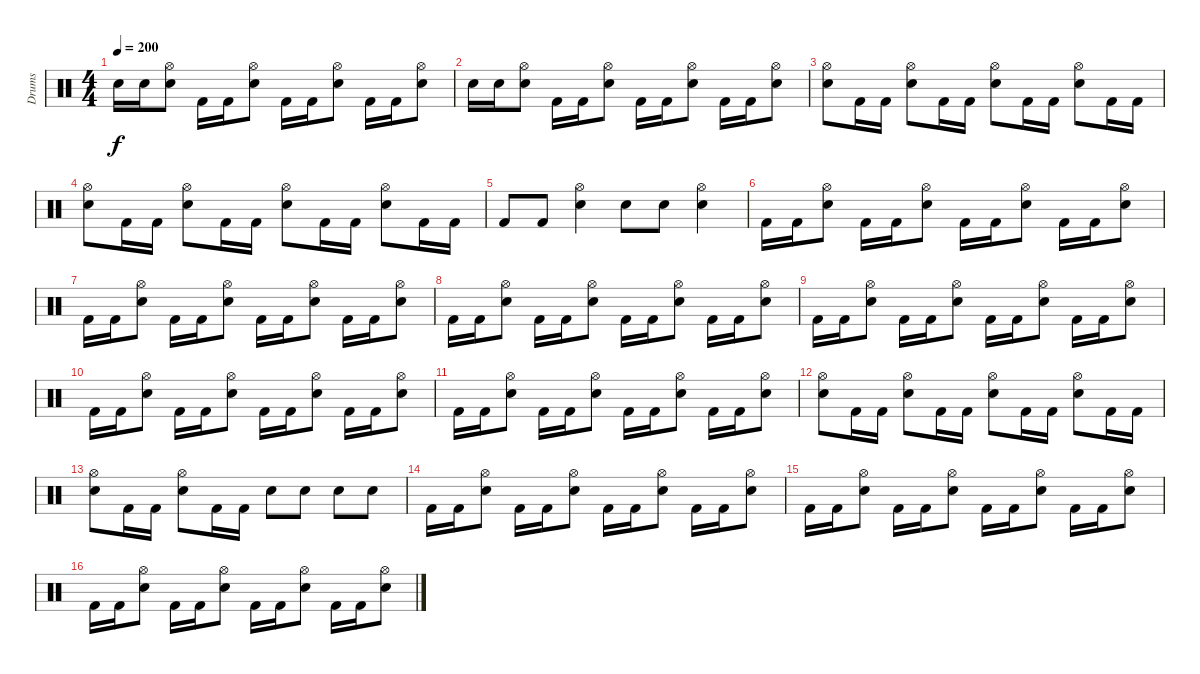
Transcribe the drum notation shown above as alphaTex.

\track ("Drums" "Drums") {instrument percussion}
\staff {score}
\articulation defaults
\ts (4 4)
\tempo 200
\clef neutral
\ks c "Snare (hit) 2".16{dy f} "Snare (hit) 2".16
("Hi-Hat (open)" "Snare (hit) 2").8 "Kick (hit) 2".16 "Kick (hit) 2".16 ("Hi-Hat (open)" "Snare (hit) 2").8 "Kick (hit) 2".16 "Kick (hit) 2".16 ("Hi-Hat (open)" "Snare (hit) 2").8 "Kick (hit) 2".16 "Kick (hit) 2".16 ("Hi-Hat (open)" "Snare (hit) 2").8 |
"Snare (hit) 2".16 "Snare (hit) 2".16 ("Hi-Hat (open)" "Snare (hit) 2").8 "Kick (hit) 2".16 "Kick (hit) 2".16 ("Hi-Hat (open)" "Snare (hit) 2").8 "Kick (hit) 2".16 "Kick (hit) 2".16 ("Hi-Hat (open)" "Snare (hit) 2").8 "Kick (hit) 2".16 "Kick (hit) 2".16 ("Hi-Hat (open)" "Snare (hit) 2").8 |
("Hi-Hat (open)" "Snare (hit) 2").8 "Kick (hit) 2".16 "Kick (hit) 2".16 ("Hi-Hat (open)" "Snare (hit) 2").8 "Kick (hit) 2".16 "Kick (hit) 2".16 ("Hi-Hat (open)" "Snare (hit) 2").8 "Kick (hit) 2".16 "Kick (hit) 2".16 ("Hi-Hat (open)" "Snare (hit) 2").8 "Kick (hit) 2".16 "Kick (hit) 2".16 |
("Hi-Hat (open)" "Snare (hit) 2").8 "Kick (hit) 2".16 "Kick (hit) 2".16 ("Hi-Hat (open)" "Snare (hit) 2").8 "Kick (hit) 2".16 "Kick (hit) 2".16 ("Hi-Hat (open)" "Snare (hit) 2").8 "Kick (hit) 2".16 "Kick (hit) 2".16 ("Hi-Hat (open)" "Snare (hit) 2").8 "Kick (hit) 2".16 "Kick (hit) 2".16 |
"Kick (hit) 2".8 "Kick (hit) 2".8 ("Hi-Hat (open)" "Snare (hit) 2").4 "Snare (hit) 2".8 "Snare (hit) 2".8 ("Hi-Hat (open)" "Snare (hit) 2").4 |
"Kick (hit) 2".16 "Kick (hit) 2".16 ("Hi-Hat (open)" "Snare (hit) 2").8 "Kick (hit) 2".16 "Kick (hit) 2".16 ("Hi-Hat (open)" "Snare (hit) 2").8 "Kick (hit) 2".16 "Kick (hit) 2".16 ("Hi-Hat (open)" "Snare (hit) 2").8 "Kick (hit) 2".16 "Kick (hit) 2".16 ("Hi-Hat (open)" "Snare (hit) 2").8 |
"Kick (hit) 2".16 "Kick (hit) 2".16 ("Hi-Hat (open)" "Snare (hit) 2").8 "Kick (hit) 2".16 "Kick (hit) 2".16 ("Hi-Hat (open)" "Snare (hit) 2").8 "Kick (hit) 2".16 "Kick (hit) 2".16 ("Hi-Hat (open)" "Snare (hit) 2").8 "Kick (hit) 2".16 "Kick (hit) 2".16 ("Hi-Hat (open)" "Snare (hit) 2").8 |
"Kick (hit) 2".16 "Kick (hit) 2".16 ("Hi-Hat (open)" "Snare (hit) 2").8 "Kick (hit) 2".16 "Kick (hit) 2".16 ("Hi-Hat (open)" "Snare (hit) 2").8 "Kick (hit) 2".16 "Kick (hit) 2".16 ("Hi-Hat (open)" "Snare (hit) 2").8 "Kick (hit) 2".16 "Kick (hit) 2".16 ("Hi-Hat (open)" "Snare (hit) 2").8 |
"Kick (hit) 2".16 "Kick (hit) 2".16 ("Hi-Hat (open)" "Snare (hit) 2").8 "Kick (hit) 2".16 "Kick (hit) 2".16 ("Hi-Hat (open)" "Snare (hit) 2").8 "Kick (hit) 2".16 "Kick (hit) 2".16 ("Hi-Hat (open)" "Snare (hit) 2").8 "Kick (hit) 2".16 "Kick (hit) 2".16 ("Hi-Hat (open)" "Snare (hit) 2").8 |
"Kick (hit) 2".16 "Kick (hit) 2".16 ("Hi-Hat (open)" "Snare (hit) 2").8 "Kick (hit) 2".16 "Kick (hit) 2".16 ("Hi-Hat (open)" "Snare (hit) 2").8 "Kick (hit) 2".16 "Kick (hit) 2".16 ("Hi-Hat (open)" "Snare (hit) 2").8 "Kick (hit) 2".16 "Kick (hit) 2".16 ("Hi-Hat (open)" "Snare (hit) 2").8 |
"Kick (hit) 2".16 "Kick (hit) 2".16 ("Hi-Hat (open)" "Snare (hit) 2").8 "Kick (hit) 2".16 "Kick (hit) 2".16 ("Hi-Hat (open)" "Snare (hit) 2").8 "Kick (hit) 2".16 "Kick (hit) 2".16 ("Hi-Hat (open)" "Snare (hit) 2").8 "Kick (hit) 2".16 "Kick (hit) 2".16 ("Hi-Hat (open)" "Snare (hit) 2").8 |
("Hi-Hat (open)" "Snare (hit) 2").8 "Kick (hit) 2".16 "Kick (hit) 2".16 ("Hi-Hat (open)" "Snare (hit) 2").8 "Kick (hit) 2".16 "Kick (hit) 2".16 ("Hi-Hat (open)" "Snare (hit) 2").8 "Kick (hit) 2".16 "Kick (hit) 2".16 ("Hi-Hat (open)" "Snare (hit) 2").8 "Kick (hit) 2".16 "Kick (hit) 2".16 |
("Hi-Hat (open)" "Snare (hit) 2").8 "Kick (hit) 2".16 "Kick (hit) 2".16 ("Hi-Hat (open)" "Snare (hit) 2").8 "Kick (hit) 2".16 "Kick (hit) 2".16 "Snare (hit) 2".8 "Snare (hit) 2".8 "Snare (hit) 2".8 "Snare (hit) 2".8 |
"Kick (hit) 2".16 "Kick (hit) 2".16 ("Hi-Hat (open)" "Snare (hit) 2").8 "Kick (hit) 2".16 "Kick (hit) 2".16 ("Hi-Hat (open)" "Snare (hit) 2").8 "Kick (hit) 2".16 "Kick (hit) 2".16 ("Hi-Hat (open)" "Snare (hit) 2").8 "Kick (hit) 2".16 "Kick (hit) 2".16 ("Hi-Hat (open)" "Snare (hit) 2").8 |
"Kick (hit) 2".16 "Kick (hit) 2".16 ("Hi-Hat (open)" "Snare (hit) 2").8 "Kick (hit) 2".16 "Kick (hit) 2".16 ("Hi-Hat (open)" "Snare (hit) 2").8 "Kick (hit) 2".16 "Kick (hit) 2".16 ("Hi-Hat (open)" "Snare (hit) 2").8 "Kick (hit) 2".16 "Kick (hit) 2".16 ("Hi-Hat (open)" "Snare (hit) 2").8 |
"Kick (hit) 2".16 "Kick (hit) 2".16 ("Hi-Hat (open)" "Snare (hit) 2").8 "Kick (hit) 2".16 "Kick (hit) 2".16 ("Hi-Hat (open)" "Snare (hit) 2").8 "Kick (hit) 2".16 "Kick (hit) 2".16 ("Hi-Hat (open)" "Snare (hit) 2").8 "Kick (hit) 2".16 "Kick (hit) 2".16 ("Hi-Hat (open)" "Snare (hit) 2").8
